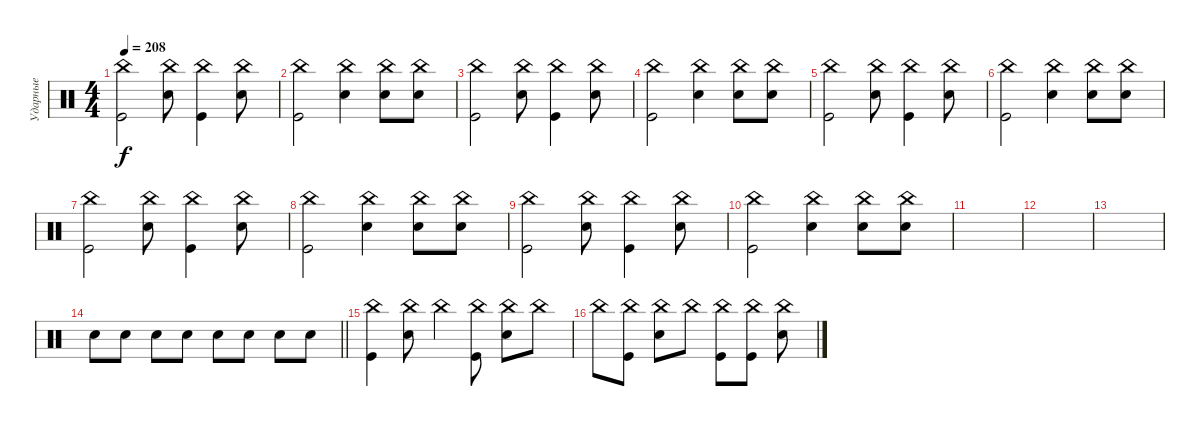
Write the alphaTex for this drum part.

\track ("Ударные" "Ударные") {instrument percussion}
\staff {score}
\articulation defaults
\ts (4 4)
\tempo 208
\clef neutral
\ks c
("Kick (hit)" "China (hit)").2{dy f} ("Snare (hit) 2" "China (hit)").8 ("Kick (hit)" "China (hit)").4 ("Snare (hit) 2" "China (hit)").8 |
("Kick (hit)" "China (hit)").2 ("Snare (hit) 2" "China (hit)").4 ("Snare (hit) 2" "China (hit)").8 ("Snare (hit) 2" "China (hit)").8 |
("Kick (hit)" "China (hit)").2 ("Snare (hit) 2" "China (hit)").8 ("Kick (hit)" "China (hit)").4 ("Snare (hit) 2" "China (hit)").8 |
("Kick (hit)" "China (hit)").2 ("Snare (hit) 2" "China (hit)").4 ("Snare (hit) 2" "China (hit)").8 ("Snare (hit) 2" "China (hit)").8 |
("Kick (hit)" "China (hit)").2 ("Snare (hit) 2" "China (hit)").8 ("Kick (hit)" "China (hit)").4 ("Snare (hit) 2" "China (hit)").8 |
("Kick (hit)" "China (hit)").2 ("Snare (hit) 2" "China (hit)").4 ("Snare (hit) 2" "China (hit)").8 ("Snare (hit) 2" "China (hit)").8 |
("Kick (hit)" "China (hit)").2 ("Snare (hit) 2" "China (hit)").8 ("Kick (hit)" "China (hit)").4 ("Snare (hit) 2" "China (hit)").8 |
("Kick (hit)" "China (hit)").2 ("Snare (hit) 2" "China (hit)").4 ("Snare (hit) 2" "China (hit)").8 ("Snare (hit) 2" "China (hit)").8 |
("Kick (hit)" "China (hit)").2 ("Snare (hit) 2" "China (hit)").8 ("Kick (hit)" "China (hit)").4 ("Snare (hit) 2" "China (hit)").8 |
("Kick (hit)" "China (hit)").2 ("Snare (hit) 2" "China (hit)").4 ("Snare (hit) 2" "China (hit)").8 ("Snare (hit) 2" "China (hit)").8 |
|
|
|
\barLineRight lightlight "Snare (hit) 2".8 "Snare (hit) 2".8 "Snare (hit) 2".8 "Snare (hit) 2".8 "Snare (hit) 2".8 "Snare (hit) 2".8 "Snare (hit) 2".8 "Snare (hit) 2".8
|
("Kick (hit)" "China (hit)").4 ("Snare (hit) 2" "China (hit)").8 "China (hit)".4 ("Kick (hit)" "China (hit)").8 ("Snare (hit) 2" "China (hit)").8 "China (hit)".8 |
"China (hit)".8 ("Kick (hit)" "China (hit)").8 ("Snare (hit) 2" "China (hit)").8 "China (hit)".8 ("Kick (hit)" "China (hit)").8 ("Kick (hit)" "China (hit)").8 ("Snare (hit) 2" "China (hit)").8
